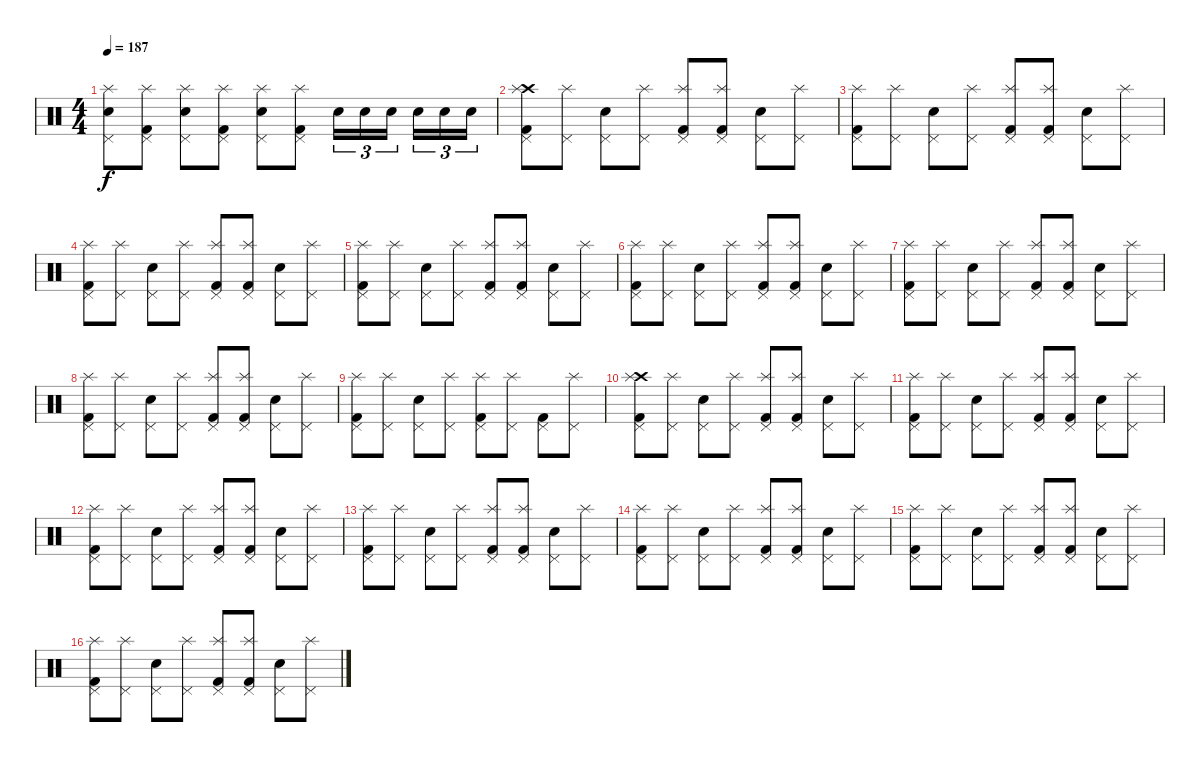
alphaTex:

\track "" {instrument percussion}
\staff {score}
\articulation defaults
\ts (4 4)
\tempo 187
\clef neutral
\ks c
("Pedal Hi-Hat (hit)" "Electric Snare (hit)" "Splash (hit)").8{dy f} ("Pedal Hi-Hat (hit)" "Kick (hit) 2" "Splash (hit)").8 ("Pedal Hi-Hat (hit)" "Electric Snare (hit)" "Splash (hit)").8 ("Pedal Hi-Hat (hit)" "Kick (hit) 2" "Splash (hit)").8 ("Pedal Hi-Hat (hit)" "Electric Snare (hit)" "Splash (hit)").8 ("Pedal Hi-Hat (hit)" "Kick (hit) 2" "Splash (hit)").8 "Electric Snare (hit)".16{tu (3 2)} "Electric Snare (hit)".16{tu (3 2)} "Electric Snare (hit)".16{tu (3 2)} "Electric Snare (hit)".16{tu (3 2)} "Electric Snare (hit)".16{tu (3 2)} "Electric Snare (hit)".16{tu (3 2)} |
("Crash high (hit)" "Splash (hit)" "Pedal Hi-Hat (hit)" "Kick (hit) 2").8 ("Splash (hit)" "Pedal Hi-Hat (hit)").8 ("Pedal Hi-Hat (hit)" "Electric Snare (hit)").8 ("Splash (hit)" "Pedal Hi-Hat (hit)").8 ("Splash (hit)" "Pedal Hi-Hat (hit)" "Kick (hit) 2").8 ("Splash (hit)" "Pedal Hi-Hat (hit)" "Kick (hit) 2").8 ("Pedal Hi-Hat (hit)" "Electric Snare (hit)").8 ("Splash (hit)" "Pedal Hi-Hat (hit)").8 |
("Splash (hit)" "Pedal Hi-Hat (hit)" "Kick (hit) 2").8 ("Splash (hit)" "Pedal Hi-Hat (hit)").8 ("Pedal Hi-Hat (hit)" "Electric Snare (hit)").8 ("Splash (hit)" "Pedal Hi-Hat (hit)").8 ("Splash (hit)" "Pedal Hi-Hat (hit)" "Kick (hit) 2").8 ("Splash (hit)" "Pedal Hi-Hat (hit)" "Kick (hit) 2").8 ("Pedal Hi-Hat (hit)" "Electric Snare (hit)").8 ("Splash (hit)" "Pedal Hi-Hat (hit)").8 |
("Splash (hit)" "Pedal Hi-Hat (hit)" "Kick (hit) 2").8 ("Splash (hit)" "Pedal Hi-Hat (hit)").8 ("Pedal Hi-Hat (hit)" "Electric Snare (hit)").8 ("Splash (hit)" "Pedal Hi-Hat (hit)").8 ("Splash (hit)" "Pedal Hi-Hat (hit)" "Kick (hit) 2").8 ("Splash (hit)" "Pedal Hi-Hat (hit)" "Kick (hit) 2").8 ("Pedal Hi-Hat (hit)" "Electric Snare (hit)").8 ("Splash (hit)" "Pedal Hi-Hat (hit)").8 |
("Splash (hit)" "Pedal Hi-Hat (hit)" "Kick (hit) 2").8 ("Splash (hit)" "Pedal Hi-Hat (hit)").8 ("Pedal Hi-Hat (hit)" "Electric Snare (hit)").8 ("Splash (hit)" "Pedal Hi-Hat (hit)").8 ("Splash (hit)" "Pedal Hi-Hat (hit)" "Kick (hit) 2").8 ("Splash (hit)" "Pedal Hi-Hat (hit)" "Kick (hit) 2").8 ("Pedal Hi-Hat (hit)" "Electric Snare (hit)").8 ("Splash (hit)" "Pedal Hi-Hat (hit)").8 |
("Splash (hit)" "Pedal Hi-Hat (hit)" "Kick (hit) 2").8 ("Splash (hit)" "Pedal Hi-Hat (hit)").8 ("Pedal Hi-Hat (hit)" "Electric Snare (hit)").8 ("Splash (hit)" "Pedal Hi-Hat (hit)").8 ("Splash (hit)" "Pedal Hi-Hat (hit)" "Kick (hit) 2").8 ("Splash (hit)" "Pedal Hi-Hat (hit)" "Kick (hit) 2").8 ("Pedal Hi-Hat (hit)" "Electric Snare (hit)").8 ("Splash (hit)" "Pedal Hi-Hat (hit)").8 |
("Splash (hit)" "Pedal Hi-Hat (hit)" "Kick (hit) 2").8 ("Splash (hit)" "Pedal Hi-Hat (hit)").8 ("Pedal Hi-Hat (hit)" "Electric Snare (hit)").8 ("Splash (hit)" "Pedal Hi-Hat (hit)").8 ("Splash (hit)" "Pedal Hi-Hat (hit)" "Kick (hit) 2").8 ("Splash (hit)" "Pedal Hi-Hat (hit)" "Kick (hit) 2").8 ("Pedal Hi-Hat (hit)" "Electric Snare (hit)").8 ("Splash (hit)" "Pedal Hi-Hat (hit)").8 |
("Splash (hit)" "Pedal Hi-Hat (hit)" "Kick (hit) 2").8 ("Splash (hit)" "Pedal Hi-Hat (hit)").8 ("Pedal Hi-Hat (hit)" "Electric Snare (hit)").8 ("Splash (hit)" "Pedal Hi-Hat (hit)").8 ("Splash (hit)" "Pedal Hi-Hat (hit)" "Kick (hit) 2").8 ("Splash (hit)" "Pedal Hi-Hat (hit)" "Kick (hit) 2").8 ("Pedal Hi-Hat (hit)" "Electric Snare (hit)").8 ("Splash (hit)" "Pedal Hi-Hat (hit)").8 |
("Splash (hit)" "Pedal Hi-Hat (hit)" "Kick (hit) 2").8 ("Splash (hit)" "Pedal Hi-Hat (hit)").8 ("Electric Snare (hit)" "Pedal Hi-Hat (hit)").8 ("Splash (hit)" "Pedal Hi-Hat (hit)").8 ("Splash (hit)" "Pedal Hi-Hat (hit)" "Kick (hit) 2").8 ("Splash (hit)" "Pedal Hi-Hat (hit)").8 ("Kick (hit) 2" "Pedal Hi-Hat (hit)").8 ("Splash (hit)" "Pedal Hi-Hat (hit)").8 |
("Crash high (hit)" "Splash (hit)" "Pedal Hi-Hat (hit)" "Kick (hit) 2").8 ("Splash (hit)" "Pedal Hi-Hat (hit)").8 ("Pedal Hi-Hat (hit)" "Electric Snare (hit)").8 ("Splash (hit)" "Pedal Hi-Hat (hit)").8 ("Splash (hit)" "Pedal Hi-Hat (hit)" "Kick (hit) 2").8 ("Splash (hit)" "Pedal Hi-Hat (hit)" "Kick (hit) 2").8 ("Pedal Hi-Hat (hit)" "Electric Snare (hit)").8 ("Splash (hit)" "Pedal Hi-Hat (hit)").8 |
("Splash (hit)" "Pedal Hi-Hat (hit)" "Kick (hit) 2").8 ("Splash (hit)" "Pedal Hi-Hat (hit)").8 ("Pedal Hi-Hat (hit)" "Electric Snare (hit)").8 ("Splash (hit)" "Pedal Hi-Hat (hit)").8 ("Splash (hit)" "Pedal Hi-Hat (hit)" "Kick (hit) 2").8 ("Splash (hit)" "Pedal Hi-Hat (hit)" "Kick (hit) 2").8 ("Pedal Hi-Hat (hit)" "Electric Snare (hit)").8 ("Splash (hit)" "Pedal Hi-Hat (hit)").8 |
("Splash (hit)" "Pedal Hi-Hat (hit)" "Kick (hit) 2").8 ("Splash (hit)" "Pedal Hi-Hat (hit)").8 ("Pedal Hi-Hat (hit)" "Electric Snare (hit)").8 ("Splash (hit)" "Pedal Hi-Hat (hit)").8 ("Splash (hit)" "Pedal Hi-Hat (hit)" "Kick (hit) 2").8 ("Splash (hit)" "Pedal Hi-Hat (hit)" "Kick (hit) 2").8 ("Pedal Hi-Hat (hit)" "Electric Snare (hit)").8 ("Splash (hit)" "Pedal Hi-Hat (hit)").8 |
("Splash (hit)" "Pedal Hi-Hat (hit)" "Kick (hit) 2").8 ("Splash (hit)" "Pedal Hi-Hat (hit)").8 ("Pedal Hi-Hat (hit)" "Electric Snare (hit)").8 ("Splash (hit)" "Pedal Hi-Hat (hit)").8 ("Splash (hit)" "Pedal Hi-Hat (hit)" "Kick (hit) 2").8 ("Splash (hit)" "Pedal Hi-Hat (hit)" "Kick (hit) 2").8 ("Pedal Hi-Hat (hit)" "Electric Snare (hit)").8 ("Splash (hit)" "Pedal Hi-Hat (hit)").8 |
("Splash (hit)" "Pedal Hi-Hat (hit)" "Kick (hit) 2").8 ("Splash (hit)" "Pedal Hi-Hat (hit)").8 ("Pedal Hi-Hat (hit)" "Electric Snare (hit)").8 ("Splash (hit)" "Pedal Hi-Hat (hit)").8 ("Splash (hit)" "Pedal Hi-Hat (hit)" "Kick (hit) 2").8 ("Splash (hit)" "Pedal Hi-Hat (hit)" "Kick (hit) 2").8 ("Pedal Hi-Hat (hit)" "Electric Snare (hit)").8 ("Splash (hit)" "Pedal Hi-Hat (hit)").8 |
("Splash (hit)" "Pedal Hi-Hat (hit)" "Kick (hit) 2").8 ("Splash (hit)" "Pedal Hi-Hat (hit)").8 ("Pedal Hi-Hat (hit)" "Electric Snare (hit)").8 ("Splash (hit)" "Pedal Hi-Hat (hit)").8 ("Splash (hit)" "Pedal Hi-Hat (hit)" "Kick (hit) 2").8 ("Splash (hit)" "Pedal Hi-Hat (hit)" "Kick (hit) 2").8 ("Pedal Hi-Hat (hit)" "Electric Snare (hit)").8 ("Splash (hit)" "Pedal Hi-Hat (hit)").8 |
("Splash (hit)" "Pedal Hi-Hat (hit)" "Kick (hit) 2").8 ("Splash (hit)" "Pedal Hi-Hat (hit)").8 ("Pedal Hi-Hat (hit)" "Electric Snare (hit)").8 ("Splash (hit)" "Pedal Hi-Hat (hit)").8 ("Splash (hit)" "Pedal Hi-Hat (hit)" "Kick (hit) 2").8 ("Splash (hit)" "Pedal Hi-Hat (hit)" "Kick (hit) 2").8 ("Pedal Hi-Hat (hit)" "Electric Snare (hit)").8 ("Splash (hit)" "Pedal Hi-Hat (hit)").8
